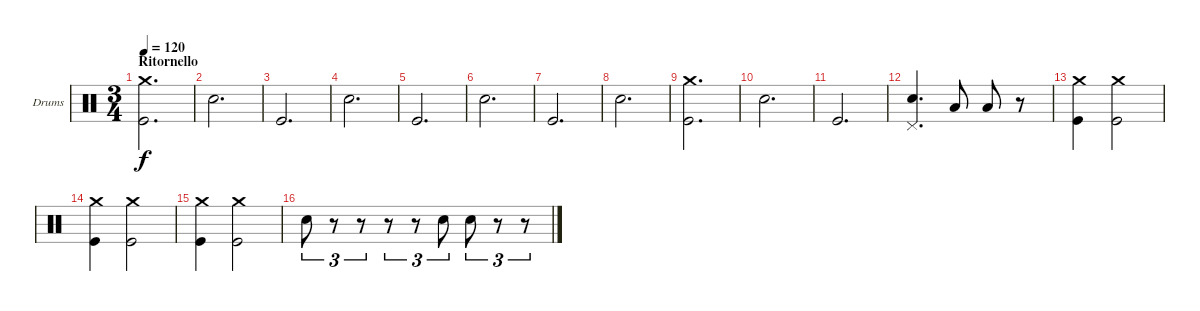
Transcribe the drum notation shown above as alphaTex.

\bracketExtendMode groupsimilarinstruments
\firstSystemTrackNameOrientation horizontal
\otherSystemsTrackNameOrientation horizontal
\track ("Drumkit" "Drums") {instrument percussion}
\staff {score}
\articulation defaults
\ts (3 4)
\section ("" "Ritornello")
\tempo 120
\clef neutral
\ks c
("Crash medium (hit)" "Kick (hit)").2{d dy f} |
"Snare (hit) 2".2{d} |
"Kick (hit)".2{d} |
"Snare (hit) 2".2{d} |
"Kick (hit)".2{d} |
"Snare (hit) 2".2{d} |
"Kick (hit)".2{d} |
"Snare (hit) 2".2{d} |
("Crash medium (hit)" "Kick (hit)").2{d} |
"Snare (hit) 2".2{d} |
"Kick (hit)".2{d} |
("Snare (hit) 2" "Pedal Hi-Hat (hit)").4{d} "Low Tom (hit)".8 "Low Tom (hit)".8 r.8 |
("Crash medium (hit)" "Kick (hit)").4 ("Crash medium (hit)" "Kick (hit)").2 |
("Crash medium (hit)" "Kick (hit)").4 ("Crash medium (hit)" "Kick (hit)").2 |
("Crash medium (hit)" "Kick (hit)").4 ("Crash medium (hit)" "Kick (hit)").2 |
"Snare (hit) 2".8{tu (3 2)} r.8{tu (3 2)} r.8{tu (3 2)} r.8{tu (3 2)} r.8{tu (3 2)} "Snare (hit) 2".8{tu (3 2)} "Snare (hit) 2".8{tu (3 2)} r.8{tu (3 2)} r.8{tu (3 2)}
